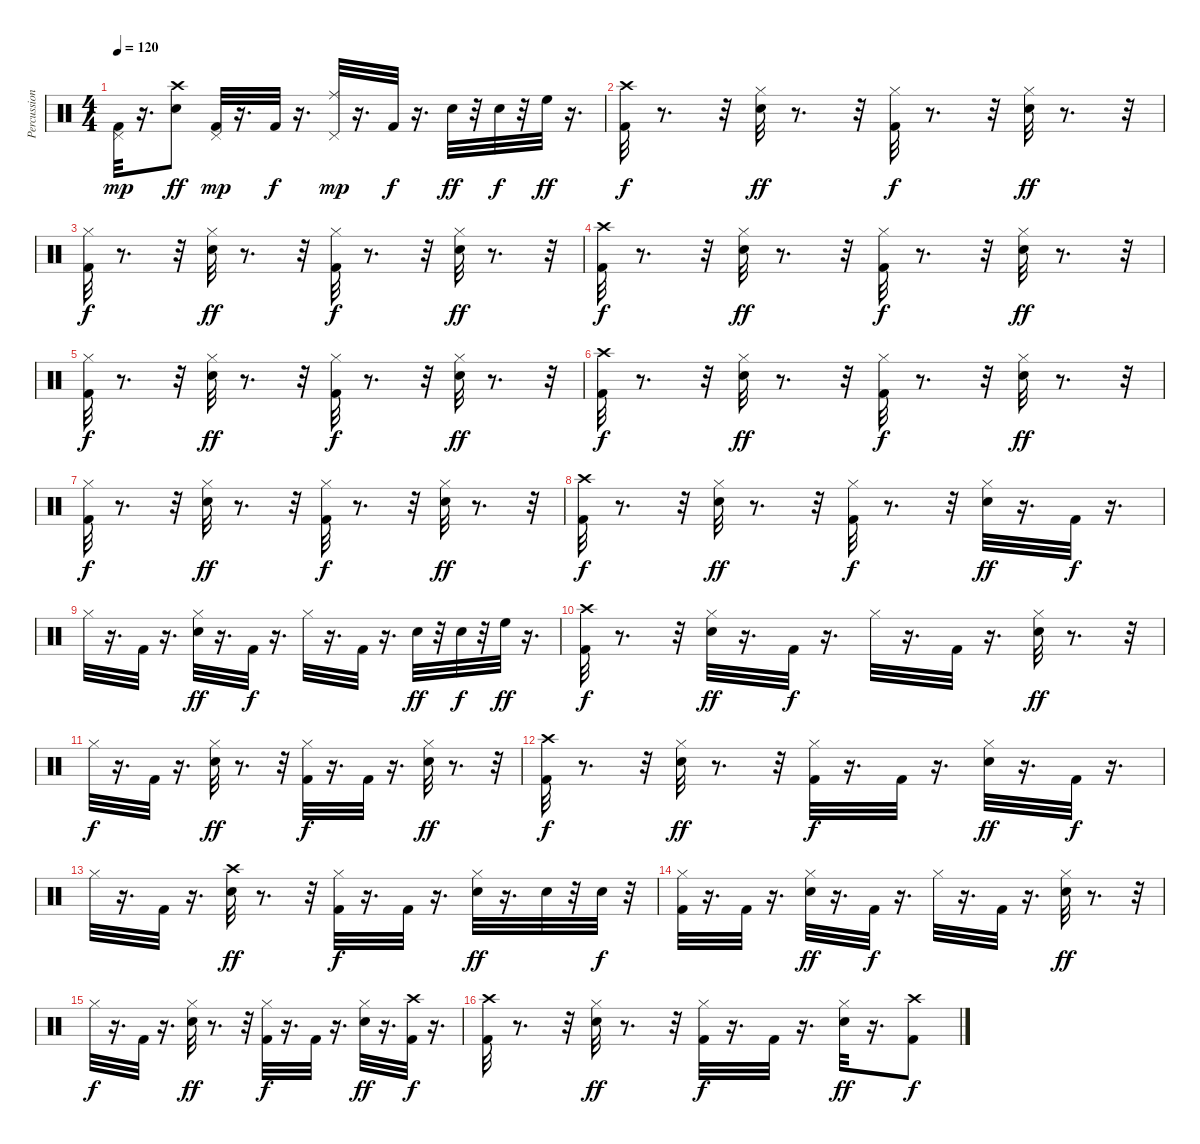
\track ("Percussion" "Percussion") {instrument percussion}
\staff {score}
\articulation defaults
\ts (4 4)
\tempo 120
\clef neutral
\ks c
("Pedal Hi-Hat (hit)" "Kick (hit) 2").32{dy mp} r.16{d} ("Crash high (hit)" "Snare (hit) 2").8{dy ff} ("Pedal Hi-Hat (hit)" "Kick (hit) 2").32{dy mp} r.16{d} "Kick (hit) 2".32{dy f} r.16{d} ("Pedal Hi-Hat (hit)" "Ride (middle)").32{dy mp} r.16{d} "Kick (hit) 2".32{dy f} r.16{d} "Snare (hit) 2".32{dy ff} r.32 "Snare (hit) 2".32{dy f} r.32 "High Floor Tom (hit)".32{dy ff} r.16{d} |
("Crash high (hit)" "Kick (hit) 2").32{dy f} r.8{d} r.32 ("Snare (hit) 2" "Hi-Hat (closed)").32{dy ff} r.8{d} r.32 ("Hi-Hat (closed)" "Kick (hit) 2").32{dy f} r.8{d} r.32 ("Snare (hit) 2" "Hi-Hat (closed)").32{dy ff} r.8{d} r.32 |
("Hi-Hat (closed)" "Kick (hit) 2").32{dy f} r.8{d} r.32 ("Snare (hit) 2" "Hi-Hat (closed)").32{dy ff} r.8{d} r.32 ("Hi-Hat (closed)" "Kick (hit) 2").32{dy f} r.8{d} r.32 ("Snare (hit) 2" "Hi-Hat (closed)").32{dy ff} r.8{d} r.32 |
("Crash high (hit)" "Kick (hit) 2").32{dy f} r.8{d} r.32 ("Snare (hit) 2" "Hi-Hat (closed)").32{dy ff} r.8{d} r.32 ("Hi-Hat (closed)" "Kick (hit) 2").32{dy f} r.8{d} r.32 ("Snare (hit) 2" "Hi-Hat (closed)").32{dy ff} r.8{d} r.32 |
("Hi-Hat (closed)" "Kick (hit) 2").32{dy f} r.8{d} r.32 ("Snare (hit) 2" "Hi-Hat (closed)").32{dy ff} r.8{d} r.32 ("Hi-Hat (closed)" "Kick (hit) 2").32{dy f} r.8{d} r.32 ("Snare (hit) 2" "Hi-Hat (closed)").32{dy ff} r.8{d} r.32 |
("Crash high (hit)" "Kick (hit) 2").32{dy f} r.8{d} r.32 ("Snare (hit) 2" "Hi-Hat (closed)").32{dy ff} r.8{d} r.32 ("Hi-Hat (closed)" "Kick (hit) 2").32{dy f} r.8{d} r.32 ("Snare (hit) 2" "Hi-Hat (closed)").32{dy ff} r.8{d} r.32 |
("Hi-Hat (closed)" "Kick (hit) 2").32{dy f} r.8{d} r.32 ("Snare (hit) 2" "Hi-Hat (closed)").32{dy ff} r.8{d} r.32 ("Hi-Hat (closed)" "Kick (hit) 2").32{dy f} r.8{d} r.32 ("Snare (hit) 2" "Hi-Hat (closed)").32{dy ff} r.8{d} r.32 |
("Crash high (hit)" "Kick (hit) 2").32{dy f} r.8{d} r.32 ("Snare (hit) 2" "Hi-Hat (closed)").32{dy ff} r.8{d} r.32 ("Hi-Hat (closed)" "Kick (hit) 2").32{dy f} r.8{d} r.32 ("Snare (hit) 2" "Hi-Hat (closed)").32{dy ff} r.16{d} "Kick (hit) 2".32{dy f} r.16{d} |
"Hi-Hat (closed)".32 r.16{d} "Kick (hit) 2".32 r.16{d} ("Snare (hit) 2" "Hi-Hat (closed)").32{dy ff} r.16{d} "Kick (hit) 2".32{dy f} r.16{d} "Hi-Hat (closed)".32 r.16{d} "Kick (hit) 2".32 r.16{d} "Snare (hit) 2".32{dy ff} r.32 "Snare (hit) 2".32{dy f} r.32 "High Floor Tom (hit)".32{dy ff} r.16{d} |
("Crash high (hit)" "Kick (hit) 2").32{dy f} r.8{d} r.32 ("Snare (hit) 2" "Hi-Hat (closed)").32{dy ff} r.16{d} "Kick (hit) 2".32{dy f} r.16{d} "Hi-Hat (closed)".32 r.16{d} "Kick (hit) 2".32 r.16{d} ("Snare (hit) 2" "Hi-Hat (closed)").32{dy ff} r.8{d} r.32 |
"Hi-Hat (closed)".32{dy f} r.16{d} "Kick (hit) 2".32 r.16{d} ("Snare (hit) 2" "Hi-Hat (closed)").32{dy ff} r.8{d} r.32 ("Hi-Hat (closed)" "Kick (hit) 2").32{dy f} r.16{d} "Kick (hit) 2".32 r.16{d} ("Snare (hit) 2" "Hi-Hat (closed)").32{dy ff} r.8{d} r.32 |
("Crash high (hit)" "Kick (hit) 2").32{dy f} r.8{d} r.32 ("Snare (hit) 2" "Hi-Hat (closed)").32{dy ff} r.8{d} r.32 ("Hi-Hat (closed)" "Kick (hit) 2").32{dy f} r.16{d} "Kick (hit) 2".32 r.16{d} ("Snare (hit) 2" "Hi-Hat (closed)").32{dy ff} r.16{d} "Kick (hit) 2".32{dy f} r.16{d} |
"Hi-Hat (closed)".32 r.16{d} "Kick (hit) 2".32 r.16{d} ("Snare (hit) 2" "Crash high (hit)").32{dy ff} r.8{d} r.32 ("Hi-Hat (closed)" "Kick (hit) 2").32{dy f} r.16{d} "Kick (hit) 2".32 r.16{d} ("Hi-Hat (closed)" "Snare (hit) 2").32{dy ff} r.16{d} "Snare (hit) 2".32 r.32 "Snare (hit) 2".32{dy f} r.32 |
("Hi-Hat (closed)" "Kick (hit) 2").32 r.16{d} "Kick (hit) 2".32 r.16{d} ("Snare (hit) 2" "Hi-Hat (closed)").32{dy ff} r.16{d} "Kick (hit) 2".32{dy f} r.16{d} "Hi-Hat (closed)".32 r.16{d} "Kick (hit) 2".32 r.16{d} ("Snare (hit) 2" "Hi-Hat (closed)").32{dy ff} r.8{d} r.32 |
"Hi-Hat (closed)".32{dy f} r.16{d} "Kick (hit) 2".32 r.16{d} ("Snare (hit) 2" "Hi-Hat (closed)").32{dy ff} r.8{d} r.32 ("Hi-Hat (closed)" "Kick (hit) 2").32{dy f} r.16{d} "Kick (hit) 2".32 r.16{d} ("Hi-Hat (closed)" "Snare (hit) 2").32{dy ff} r.16{d} ("Crash high (hit)" "Kick (hit) 2").32{dy f} r.16{d} |
("Crash high (hit)" "Kick (hit) 2").32 r.8{d} r.32 ("Snare (hit) 2" "Hi-Hat (closed)").32{dy ff} r.8{d} r.32 ("Hi-Hat (closed)" "Kick (hit) 2").32{dy f} r.16{d} "Kick (hit) 2".32 r.16{d} ("Snare (hit) 2" "Hi-Hat (closed)").32{dy ff} r.16{d} ("Crash high (hit)" "Kick (hit) 2").8{dy f}
